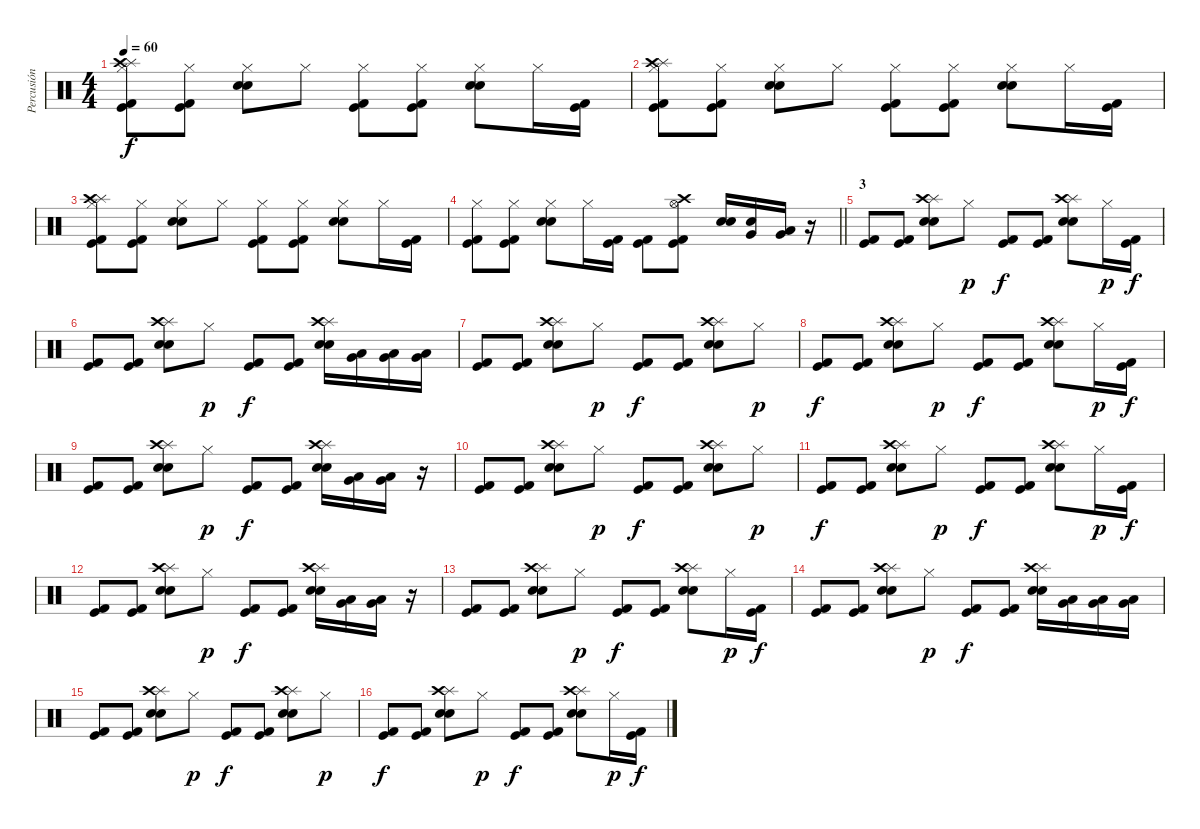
\track ("Percusión" "Percusión") {instrument percussion}
\staff {score}
\articulation defaults
\ts (4 4)
\tempo 60
\clef neutral
\ks c
("Kick (hit) 2" "Kick (hit)" "Hi-Hat (closed)" "Splash (hit)" "Crash high (hit)").8{dy f} ("Kick (hit) 2" "Kick (hit)" "Hi-Hat (closed)").8 ("Electric Snare (hit)" "Snare (hit) 2" "Hi-Hat (closed)").8 "Hi-Hat (closed)".8 ("Kick (hit) 2" "Kick (hit)" "Hi-Hat (closed)").8 ("Kick (hit) 2" "Kick (hit)" "Hi-Hat (closed)").8 ("Electric Snare (hit)" "Snare (hit) 2" "Hi-Hat (closed)").8 "Hi-Hat (closed)".16 ("Kick (hit) 2" "Kick (hit)").16 |
("Kick (hit) 2" "Kick (hit)" "Hi-Hat (closed)" "Splash (hit)" "Crash high (hit)").8 ("Kick (hit) 2" "Kick (hit)" "Hi-Hat (closed)").8 ("Electric Snare (hit)" "Snare (hit) 2" "Hi-Hat (closed)").8 "Hi-Hat (closed)".8 ("Kick (hit) 2" "Kick (hit)" "Hi-Hat (closed)").8 ("Kick (hit) 2" "Kick (hit)" "Hi-Hat (closed)").8 ("Electric Snare (hit)" "Snare (hit) 2" "Hi-Hat (closed)").8 "Hi-Hat (closed)".16 ("Kick (hit) 2" "Kick (hit)").16 |
("Kick (hit) 2" "Kick (hit)" "Hi-Hat (closed)" "Splash (hit)" "Crash high (hit)").8 ("Kick (hit) 2" "Kick (hit)" "Hi-Hat (closed)").8 ("Electric Snare (hit)" "Snare (hit) 2" "Hi-Hat (closed)").8 "Hi-Hat (closed)".8 ("Kick (hit) 2" "Kick (hit)" "Hi-Hat (closed)").8 ("Kick (hit) 2" "Kick (hit)" "Hi-Hat (closed)").8 ("Electric Snare (hit)" "Snare (hit) 2" "Hi-Hat (closed)").8 "Hi-Hat (closed)".16 ("Kick (hit) 2" "Kick (hit)").16 |
\barLineRight lightlight
("Kick (hit) 2" "Kick (hit)" "Hi-Hat (closed)").8 ("Kick (hit) 2" "Kick (hit)" "Hi-Hat (closed)").8 ("Electric Snare (hit)" "Snare (hit) 2" "Hi-Hat (closed)").8 "Hi-Hat (closed)".16 ("Kick (hit) 2" "Kick (hit)").16 ("Kick (hit)" "Kick (hit) 2").8 ("Kick (hit)" "Kick (hit) 2" "Crash high (hit)" "Hi-Hat (open)").8 ("Snare (hit) 2" "Electric Snare (hit)").16 ("Very Low Tom (hit)" "Snare (hit)").16 ("Very Low Tom (hit)" "Low Floor Tom (hit)").16 r.16 |
\section ("" "3")
("Kick (hit)" "Kick (hit) 2").8 ("Kick (hit)" "Kick (hit) 2").8 ("Snare (hit) 2" "Electric Snare (hit)" "Splash (hit)" "Crash high (hit)").8 "Hi-Hat (closed)".8{dy p} ("Kick (hit)" "Kick (hit) 2").8{dy f} ("Kick (hit)" "Kick (hit) 2").8 ("Snare (hit) 2" "Electric Snare (hit)" "Splash (hit)" "Crash high (hit)").8 "Hi-Hat (closed)".16{dy p} ("Kick (hit) 2" "Kick (hit)").16{dy f} |
("Kick (hit)" "Kick (hit) 2").8 ("Kick (hit)" "Kick (hit) 2").8 ("Snare (hit) 2" "Electric Snare (hit)" "Splash (hit)" "Crash high (hit)").8 "Hi-Hat (closed)".8{dy p} ("Kick (hit)" "Kick (hit) 2").8{dy f} ("Kick (hit)" "Kick (hit) 2").8 ("Snare (hit) 2" "Electric Snare (hit)" "Splash (hit)" "Crash high (hit)").16 ("Low Floor Tom (hit)" "Very Low Tom (hit)").16 ("Low Floor Tom (hit)" "Very Low Tom (hit)").16 ("Very Low Tom (hit)" "Low Tom (hit)").16 |
("Kick (hit)" "Kick (hit) 2").8 ("Kick (hit)" "Kick (hit) 2").8 ("Snare (hit) 2" "Electric Snare (hit)" "Splash (hit)" "Crash high (hit)").8 "Hi-Hat (closed)".8{dy p} ("Kick (hit)" "Kick (hit) 2").8{dy f} ("Kick (hit)" "Kick (hit) 2").8 ("Snare (hit) 2" "Electric Snare (hit)" "Splash (hit)" "Crash high (hit)").8 "Hi-Hat (closed)".8{dy p} |
("Kick (hit)" "Kick (hit) 2").8{dy f} ("Kick (hit)" "Kick (hit) 2").8 ("Snare (hit) 2" "Electric Snare (hit)" "Splash (hit)" "Crash high (hit)").8 "Hi-Hat (closed)".8{dy p} ("Kick (hit)" "Kick (hit) 2").8{dy f} ("Kick (hit)" "Kick (hit) 2").8 ("Snare (hit) 2" "Electric Snare (hit)" "Splash (hit)" "Crash high (hit)").8 "Hi-Hat (closed)".16{dy p} ("Kick (hit) 2" "Kick (hit)").16{dy f} |
("Kick (hit)" "Kick (hit) 2").8 ("Kick (hit)" "Kick (hit) 2").8 ("Snare (hit) 2" "Electric Snare (hit)" "Splash (hit)" "Crash high (hit)").8 "Hi-Hat (closed)".8{dy p} ("Kick (hit)" "Kick (hit) 2").8{dy f} ("Kick (hit)" "Kick (hit) 2").8 ("Snare (hit) 2" "Electric Snare (hit)" "Splash (hit)" "Crash high (hit)").16 ("Low Floor Tom (hit)" "Very Low Tom (hit)").16 ("Low Floor Tom (hit)" "Very Low Tom (hit)").16 r.16 |
("Kick (hit)" "Kick (hit) 2").8 ("Kick (hit)" "Kick (hit) 2").8 ("Snare (hit) 2" "Electric Snare (hit)" "Splash (hit)" "Crash high (hit)").8 "Hi-Hat (closed)".8{dy p} ("Kick (hit)" "Kick (hit) 2").8{dy f} ("Kick (hit)" "Kick (hit) 2").8 ("Snare (hit) 2" "Electric Snare (hit)" "Splash (hit)" "Crash high (hit)").8 "Hi-Hat (closed)".8{dy p} |
("Kick (hit)" "Kick (hit) 2").8{dy f} ("Kick (hit)" "Kick (hit) 2").8 ("Snare (hit) 2" "Electric Snare (hit)" "Splash (hit)" "Crash high (hit)").8 "Hi-Hat (closed)".8{dy p} ("Kick (hit)" "Kick (hit) 2").8{dy f} ("Kick (hit)" "Kick (hit) 2").8 ("Snare (hit) 2" "Electric Snare (hit)" "Splash (hit)" "Crash high (hit)").8 "Hi-Hat (closed)".16{dy p} ("Kick (hit) 2" "Kick (hit)").16{dy f} |
("Kick (hit)" "Kick (hit) 2").8 ("Kick (hit)" "Kick (hit) 2").8 ("Snare (hit) 2" "Electric Snare (hit)" "Splash (hit)" "Crash high (hit)").8 "Hi-Hat (closed)".8{dy p} ("Kick (hit)" "Kick (hit) 2").8{dy f} ("Kick (hit)" "Kick (hit) 2").8 ("Snare (hit) 2" "Electric Snare (hit)" "Splash (hit)" "Crash high (hit)").16 ("Low Floor Tom (hit)" "Very Low Tom (hit)").16 ("Low Floor Tom (hit)" "Very Low Tom (hit)").16 r.16 |
("Kick (hit)" "Kick (hit) 2").8 ("Kick (hit)" "Kick (hit) 2").8 ("Snare (hit) 2" "Electric Snare (hit)" "Splash (hit)" "Crash high (hit)").8 "Hi-Hat (closed)".8{dy p} ("Kick (hit)" "Kick (hit) 2").8{dy f} ("Kick (hit)" "Kick (hit) 2").8 ("Snare (hit) 2" "Electric Snare (hit)" "Splash (hit)" "Crash high (hit)").8 "Hi-Hat (closed)".16{dy p} ("Kick (hit) 2" "Kick (hit)").16{dy f} |
("Kick (hit)" "Kick (hit) 2").8 ("Kick (hit)" "Kick (hit) 2").8 ("Snare (hit) 2" "Electric Snare (hit)" "Splash (hit)" "Crash high (hit)").8 "Hi-Hat (closed)".8{dy p} ("Kick (hit)" "Kick (hit) 2").8{dy f} ("Kick (hit)" "Kick (hit) 2").8 ("Snare (hit) 2" "Electric Snare (hit)" "Splash (hit)" "Crash high (hit)").16 ("Low Floor Tom (hit)" "Very Low Tom (hit)").16 ("Low Floor Tom (hit)" "Very Low Tom (hit)").16 ("Very Low Tom (hit)" "Low Tom (hit)").16 |
("Kick (hit)" "Kick (hit) 2").8 ("Kick (hit)" "Kick (hit) 2").8 ("Snare (hit) 2" "Electric Snare (hit)" "Splash (hit)" "Crash high (hit)").8 "Hi-Hat (closed)".8{dy p} ("Kick (hit)" "Kick (hit) 2").8{dy f} ("Kick (hit)" "Kick (hit) 2").8 ("Snare (hit) 2" "Electric Snare (hit)" "Splash (hit)" "Crash high (hit)").8 "Hi-Hat (closed)".8{dy p} |
("Kick (hit)" "Kick (hit) 2").8{dy f} ("Kick (hit)" "Kick (hit) 2").8 ("Snare (hit) 2" "Electric Snare (hit)" "Splash (hit)" "Crash high (hit)").8 "Hi-Hat (closed)".8{dy p} ("Kick (hit)" "Kick (hit) 2").8{dy f} ("Kick (hit)" "Kick (hit) 2").8 ("Snare (hit) 2" "Electric Snare (hit)" "Splash (hit)" "Crash high (hit)").8 "Hi-Hat (closed)".16{dy p} ("Kick (hit) 2" "Kick (hit)").16{dy f}
